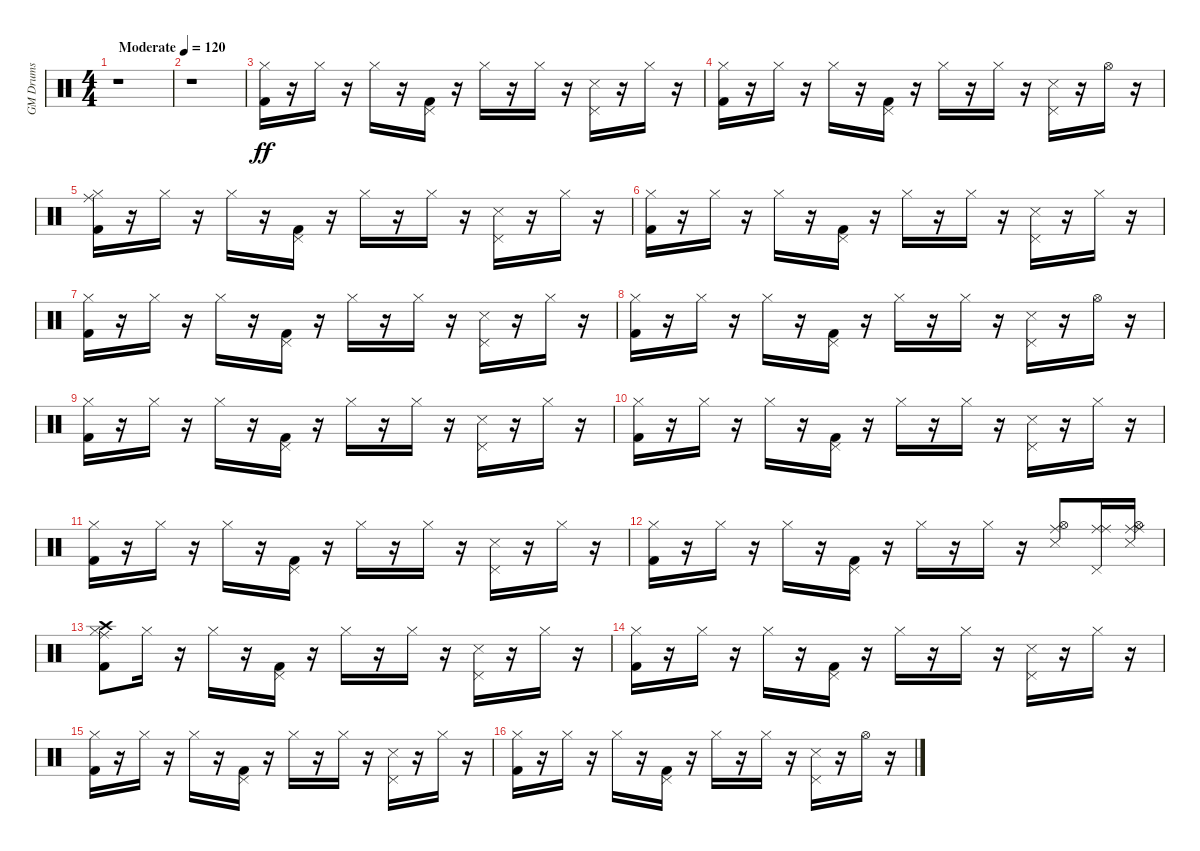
\track ("GM Drums" "GM Drums") {instrument percussion}
\staff {score}
\articulation defaults
\ts (4 4)
\tempo (120 "Moderate")
\clef neutral
\ks c
r.1{dy ff} |
r.1 |
("Kick (hit) 2" "Hi-Hat (closed)").16 r.16 "Hi-Hat (closed)".16 r.16 "Hi-Hat (closed)".16 r.16 ("Kick (hit) 2" "Pedal Hi-Hat (hit)").16 r.16 "Hi-Hat (closed)".16 r.16 "Hi-Hat (closed)".16 r.16 ("Snare (side stick) 3" "Pedal Hi-Hat (hit)").16 r.16 "Hi-Hat (closed)".16 r.16 |
("Kick (hit) 2" "Hi-Hat (closed)").16 r.16 "Hi-Hat (closed)".16 r.16 "Hi-Hat (closed)".16 r.16 ("Kick (hit) 2" "Pedal Hi-Hat (hit)").16 r.16 "Hi-Hat (closed)".16 r.16 "Hi-Hat (closed)".16 r.16 ("Snare (side stick) 3" "Pedal Hi-Hat (hit)").16 r.16 "Hi-Hat (open)".16 r.16 |
("Kick (hit) 2" "Hi-Hat (closed)" "Ride (middle)").16 r.16 "Hi-Hat (closed)".16 r.16 "Hi-Hat (closed)".16 r.16 ("Kick (hit) 2" "Pedal Hi-Hat (hit)").16 r.16 "Hi-Hat (closed)".16 r.16 "Hi-Hat (closed)".16 r.16 ("Snare (side stick) 3" "Pedal Hi-Hat (hit)").16 r.16 "Hi-Hat (closed)".16 r.16 |
("Kick (hit) 2" "Hi-Hat (closed)").16 r.16 "Hi-Hat (closed)".16 r.16 "Hi-Hat (closed)".16 r.16 ("Kick (hit) 2" "Pedal Hi-Hat (hit)").16 r.16 "Hi-Hat (closed)".16 r.16 "Hi-Hat (closed)".16 r.16 ("Snare (side stick) 3" "Pedal Hi-Hat (hit)").16 r.16 "Hi-Hat (closed)".16 r.16 |
("Kick (hit) 2" "Hi-Hat (closed)").16 r.16 "Hi-Hat (closed)".16 r.16 "Hi-Hat (closed)".16 r.16 ("Kick (hit) 2" "Pedal Hi-Hat (hit)").16 r.16 "Hi-Hat (closed)".16 r.16 "Hi-Hat (closed)".16 r.16 ("Snare (side stick) 3" "Pedal Hi-Hat (hit)").16 r.16 "Hi-Hat (closed)".16 r.16 |
("Kick (hit) 2" "Hi-Hat (closed)").16 r.16 "Hi-Hat (closed)".16 r.16 "Hi-Hat (closed)".16 r.16 ("Kick (hit) 2" "Pedal Hi-Hat (hit)").16 r.16 "Hi-Hat (closed)".16 r.16 "Hi-Hat (closed)".16 r.16 ("Snare (side stick) 3" "Pedal Hi-Hat (hit)").16 r.16 "Hi-Hat (open)".16 r.16 |
("Kick (hit) 2" "Hi-Hat (closed)").16 r.16 "Hi-Hat (closed)".16 r.16 "Hi-Hat (closed)".16 r.16 ("Kick (hit) 2" "Pedal Hi-Hat (hit)").16 r.16 "Hi-Hat (closed)".16 r.16 "Hi-Hat (closed)".16 r.16 ("Snare (side stick) 3" "Pedal Hi-Hat (hit)").16 r.16 "Hi-Hat (closed)".16 r.16 |
("Kick (hit) 2" "Hi-Hat (closed)").16 r.16 "Hi-Hat (closed)".16 r.16 "Hi-Hat (closed)".16 r.16 ("Kick (hit) 2" "Pedal Hi-Hat (hit)").16 r.16 "Hi-Hat (closed)".16 r.16 "Hi-Hat (closed)".16 r.16 ("Snare (side stick) 3" "Pedal Hi-Hat (hit)").16 r.16 "Hi-Hat (closed)".16 r.16 |
("Kick (hit) 2" "Hi-Hat (closed)").16 r.16 "Hi-Hat (closed)".16 r.16 "Hi-Hat (closed)".16 r.16 ("Kick (hit) 2" "Pedal Hi-Hat (hit)").16 r.16 "Hi-Hat (closed)".16 r.16 "Hi-Hat (closed)".16 r.16 ("Snare (side stick) 3" "Pedal Hi-Hat (hit)").16 r.16 "Hi-Hat (closed)".16 r.16 |
("Kick (hit) 2" "Hi-Hat (closed)").16 r.16 "Hi-Hat (closed)".16 r.16 "Hi-Hat (closed)".16 r.16 ("Kick (hit) 2" "Pedal Hi-Hat (hit)").16 r.16 "Hi-Hat (closed)".16 r.16 "Hi-Hat (closed)".16 r.16 ("Snare (side stick) 3" "Hi-Hat (open)" "Ride (middle)").8 ("Pedal Hi-Hat (hit)" "Ride (middle)" "Ride (middle)").16 ("Snare (side stick) 3" "Hi-Hat (open)" "Ride (middle)" "Ride (middle)").16 |
("Kick (hit) 2" "Hi-Hat (closed)" "Crash high (hit)" "Ride (middle)").8 "Hi-Hat (closed)".16 r.16 "Hi-Hat (closed)".16 r.16 ("Kick (hit) 2" "Pedal Hi-Hat (hit)").16 r.16 "Hi-Hat (closed)".16 r.16 "Hi-Hat (closed)".16 r.16 ("Snare (side stick) 3" "Pedal Hi-Hat (hit)").16 r.16 "Hi-Hat (closed)".16 r.16 |
("Kick (hit) 2" "Hi-Hat (closed)").16 r.16 "Hi-Hat (closed)".16 r.16 "Hi-Hat (closed)".16 r.16 ("Kick (hit) 2" "Pedal Hi-Hat (hit)").16 r.16 "Hi-Hat (closed)".16 r.16 "Hi-Hat (closed)".16 r.16 ("Snare (side stick) 3" "Pedal Hi-Hat (hit)").16 r.16 "Hi-Hat (closed)".16 r.16 |
("Kick (hit) 2" "Hi-Hat (closed)").16 r.16 "Hi-Hat (closed)".16 r.16 "Hi-Hat (closed)".16 r.16 ("Kick (hit) 2" "Pedal Hi-Hat (hit)").16 r.16 "Hi-Hat (closed)".16 r.16 "Hi-Hat (closed)".16 r.16 ("Snare (side stick) 3" "Pedal Hi-Hat (hit)").16 r.16 "Hi-Hat (closed)".16 r.16 |
("Kick (hit) 2" "Hi-Hat (closed)").16 r.16 "Hi-Hat (closed)".16 r.16 "Hi-Hat (closed)".16 r.16 ("Kick (hit) 2" "Pedal Hi-Hat (hit)").16 r.16 "Hi-Hat (closed)".16 r.16 "Hi-Hat (closed)".16 r.16 ("Snare (side stick) 3" "Pedal Hi-Hat (hit)").16 r.16 "Hi-Hat (open)".16 r.16
